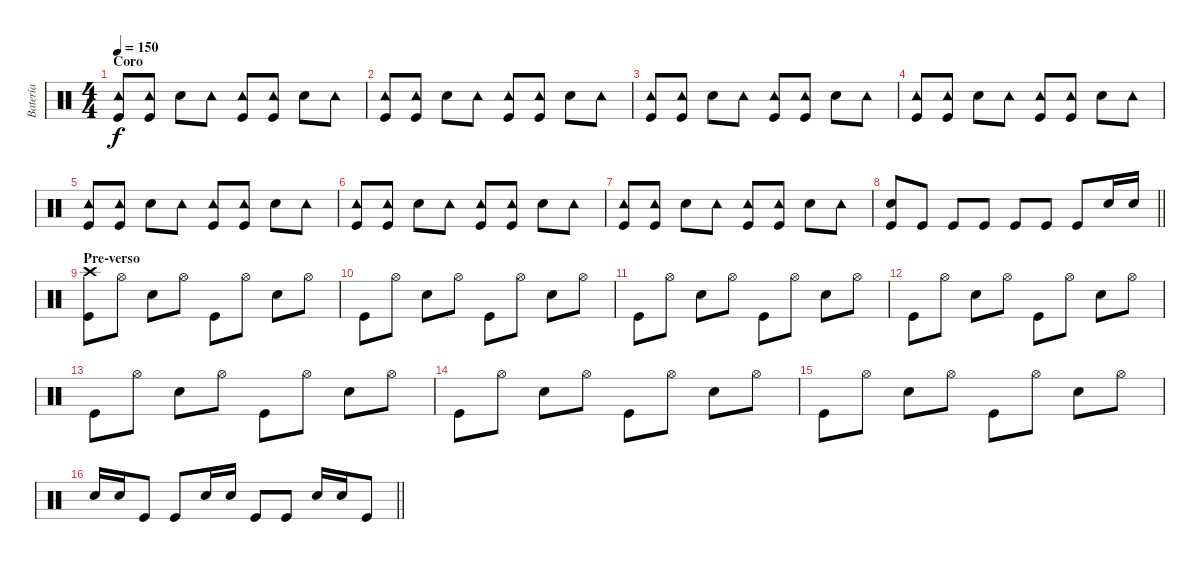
\track ("Batería" "Batería") {instrument percussion}
\staff {score}
\articulation defaults
\ts (4 4)
\section ("" "Coro")
\tempo 150
\clef neutral
\ks c
("Tambourine (hit)" "Kick (hit)").8{dy f} ("Tambourine (hit)" "Kick (hit)").8 "Snare (hit) 2".8 "Tambourine (hit)".8 ("Tambourine (hit)" "Kick (hit)").8 ("Tambourine (hit)" "Kick (hit)").8 "Snare (hit) 2".8 "Tambourine (hit)".8 |
("Tambourine (hit)" "Kick (hit)").8 ("Tambourine (hit)" "Kick (hit)").8 "Snare (hit) 2".8 "Tambourine (hit)".8 ("Tambourine (hit)" "Kick (hit)").8 ("Tambourine (hit)" "Kick (hit)").8 "Snare (hit) 2".8 "Tambourine (hit)".8 |
("Tambourine (hit)" "Kick (hit)").8 ("Tambourine (hit)" "Kick (hit)").8 "Snare (hit) 2".8 "Tambourine (hit)".8 ("Tambourine (hit)" "Kick (hit)").8 ("Tambourine (hit)" "Kick (hit)").8 "Snare (hit) 2".8 "Tambourine (hit)".8 |
("Tambourine (hit)" "Kick (hit)").8 ("Tambourine (hit)" "Kick (hit)").8 "Snare (hit) 2".8 "Tambourine (hit)".8 ("Tambourine (hit)" "Kick (hit)").8 ("Tambourine (hit)" "Kick (hit)").8 "Snare (hit) 2".8 "Tambourine (hit)".8 |
("Tambourine (hit)" "Kick (hit)").8 ("Tambourine (hit)" "Kick (hit)").8 "Snare (hit) 2".8 "Tambourine (hit)".8 ("Tambourine (hit)" "Kick (hit)").8 ("Tambourine (hit)" "Kick (hit)").8 "Snare (hit) 2".8 "Tambourine (hit)".8 |
("Tambourine (hit)" "Kick (hit)").8 ("Tambourine (hit)" "Kick (hit)").8 "Snare (hit) 2".8 "Tambourine (hit)".8 ("Tambourine (hit)" "Kick (hit)").8 ("Tambourine (hit)" "Kick (hit)").8 "Snare (hit) 2".8 "Tambourine (hit)".8 |
("Tambourine (hit)" "Kick (hit)").8 ("Tambourine (hit)" "Kick (hit)").8 "Snare (hit) 2".8 "Tambourine (hit)".8 ("Tambourine (hit)" "Kick (hit)").8 ("Tambourine (hit)" "Kick (hit)").8 "Snare (hit) 2".8 "Tambourine (hit)".8 |
\barLineRight lightlight
("Snare (hit) 2" "Kick (hit)").8 "Kick (hit)".8 "Kick (hit)".8 "Kick (hit)".8 "Kick (hit)".8 "Kick (hit)".8 "Kick (hit)".8 "Snare (hit) 2".16 "Snare (hit) 2".16 |
\section ("" "Pre-verso")
("Crash high (hit)" "Kick (hit)").8 "Hi-Hat (open)".8 "Snare (hit) 2".8 "Hi-Hat (open)".8 "Kick (hit)".8 "Hi-Hat (open)".8 "Snare (hit) 2".8 "Hi-Hat (open)".8 |
"Kick (hit)".8 "Hi-Hat (open)".8 "Snare (hit) 2".8 "Hi-Hat (open)".8 "Kick (hit)".8 "Hi-Hat (open)".8 "Snare (hit) 2".8 "Hi-Hat (open)".8 |
"Kick (hit)".8 "Hi-Hat (open)".8 "Snare (hit) 2".8 "Hi-Hat (open)".8 "Kick (hit)".8 "Hi-Hat (open)".8 "Snare (hit) 2".8 "Hi-Hat (open)".8 |
"Kick (hit)".8 "Hi-Hat (open)".8 "Snare (hit) 2".8 "Hi-Hat (open)".8 "Kick (hit)".8 "Hi-Hat (open)".8 "Snare (hit) 2".8 "Hi-Hat (open)".8 |
"Kick (hit)".8 "Hi-Hat (open)".8 "Snare (hit) 2".8 "Hi-Hat (open)".8 "Kick (hit)".8 "Hi-Hat (open)".8 "Snare (hit) 2".8 "Hi-Hat (open)".8 |
"Kick (hit)".8 "Hi-Hat (open)".8 "Snare (hit) 2".8 "Hi-Hat (open)".8 "Kick (hit)".8 "Hi-Hat (open)".8 "Snare (hit) 2".8 "Hi-Hat (open)".8 |
"Kick (hit)".8 "Hi-Hat (open)".8 "Snare (hit) 2".8 "Hi-Hat (open)".8 "Kick (hit)".8 "Hi-Hat (open)".8 "Snare (hit) 2".8 "Hi-Hat (open)".8 |
\barLineRight lightlight "Snare (hit) 2".16 "Snare (hit) 2".16 "Kick (hit)".8 "Kick (hit)".8 "Snare (hit) 2".16 "Snare (hit) 2".16 "Kick (hit)".8 "Kick (hit)".8 "Snare (hit) 2".16 "Snare (hit) 2".16 "Kick (hit)".8
